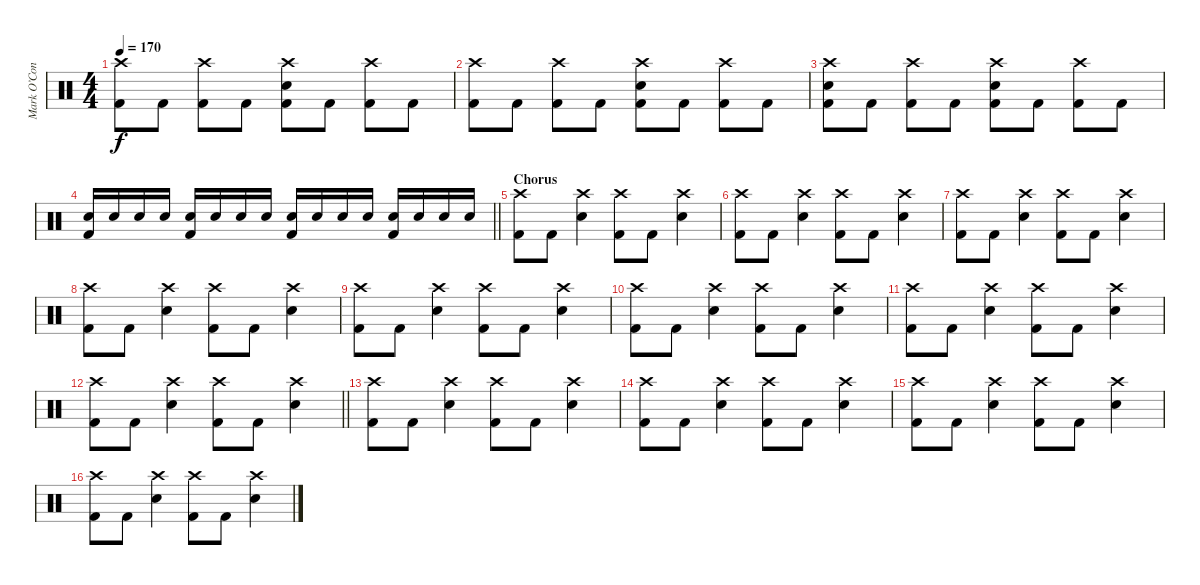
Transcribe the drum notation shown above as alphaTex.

\track ("Mark O’Connell - Drums" "Mark O’Con") {instrument percussion}
\staff {score}
\articulation defaults
\ts (4 4)
\tempo 170
\clef neutral
\ks c
("Crash high (hit)" "Kick (hit) 2").8{dy f} "Kick (hit) 2".8 ("Crash high (hit)" "Kick (hit) 2").8 "Kick (hit) 2".8 ("Crash high (hit)" "Snare (hit) 2" "Kick (hit) 2").8 "Kick (hit) 2".8 ("Crash high (hit)" "Kick (hit) 2").8 "Kick (hit) 2".8 |
("Crash high (hit)" "Kick (hit) 2").8 "Kick (hit) 2".8 ("Crash high (hit)" "Kick (hit) 2").8 "Kick (hit) 2".8 ("Crash high (hit)" "Snare (hit) 2" "Kick (hit) 2").8 "Kick (hit) 2".8 ("Crash high (hit)" "Kick (hit) 2").8 "Kick (hit) 2".8 |
("Crash high (hit)" "Snare (hit) 2" "Kick (hit) 2").8 "Kick (hit) 2".8 ("Crash high (hit)" "Kick (hit) 2").8 "Kick (hit) 2".8 ("Crash high (hit)" "Snare (hit) 2" "Kick (hit) 2").8 "Kick (hit) 2".8 ("Crash high (hit)" "Kick (hit) 2").8 "Kick (hit) 2".8 |
\barLineRight lightlight
("Snare (hit) 2" "Kick (hit) 2").16 "Snare (hit) 2".16 "Snare (hit) 2".16 "Snare (hit) 2".16 ("Snare (hit) 2" "Kick (hit) 2").16 "Snare (hit) 2".16 "Snare (hit) 2".16 "Snare (hit) 2".16 ("Snare (hit) 2" "Kick (hit) 2").16 "Snare (hit) 2".16 "Snare (hit) 2".16 "Snare (hit) 2".16 ("Snare (hit) 2" "Kick (hit) 2").16 "Snare (hit) 2".16 "Snare (hit) 2".16 "Snare (hit) 2".16 |
\section ("" "Chorus")
("Crash high (hit)" "Kick (hit) 2").8 "Kick (hit) 2".8 ("Crash high (hit)" "Snare (hit) 2").4 ("Crash high (hit)" "Kick (hit) 2").8 "Kick (hit) 2".8 ("Crash high (hit)" "Snare (hit) 2").4 |
("Crash high (hit)" "Kick (hit) 2").8 "Kick (hit) 2".8 ("Crash high (hit)" "Snare (hit) 2").4 ("Crash high (hit)" "Kick (hit) 2").8 "Kick (hit) 2".8 ("Crash high (hit)" "Snare (hit) 2").4 |
("Crash high (hit)" "Kick (hit) 2").8 "Kick (hit) 2".8 ("Crash high (hit)" "Snare (hit) 2").4 ("Crash high (hit)" "Kick (hit) 2").8 "Kick (hit) 2".8 ("Crash high (hit)" "Snare (hit) 2").4 |
("Crash high (hit)" "Kick (hit) 2").8 "Kick (hit) 2".8 ("Crash high (hit)" "Snare (hit) 2").4 ("Crash high (hit)" "Kick (hit) 2").8 "Kick (hit) 2".8 ("Crash high (hit)" "Snare (hit) 2").4 |
("Crash high (hit)" "Kick (hit) 2").8 "Kick (hit) 2".8 ("Crash high (hit)" "Snare (hit) 2").4 ("Crash high (hit)" "Kick (hit) 2").8 "Kick (hit) 2".8 ("Crash high (hit)" "Snare (hit) 2").4 |
("Crash high (hit)" "Kick (hit) 2").8 "Kick (hit) 2".8 ("Crash high (hit)" "Snare (hit) 2").4 ("Crash high (hit)" "Kick (hit) 2").8 "Kick (hit) 2".8 ("Crash high (hit)" "Snare (hit) 2").4 |
("Crash high (hit)" "Kick (hit) 2").8 "Kick (hit) 2".8 ("Crash high (hit)" "Snare (hit) 2").4 ("Crash high (hit)" "Kick (hit) 2").8 "Kick (hit) 2".8 ("Crash high (hit)" "Snare (hit) 2").4 |
\barLineRight lightlight
("Crash high (hit)" "Kick (hit) 2").8 "Kick (hit) 2".8 ("Crash high (hit)" "Snare (hit) 2").4 ("Crash high (hit)" "Kick (hit) 2").8 "Kick (hit) 2".8 ("Crash high (hit)" "Snare (hit) 2").4 |
("Crash high (hit)" "Kick (hit) 2").8 "Kick (hit) 2".8 ("Crash high (hit)" "Snare (hit) 2").4 ("Crash high (hit)" "Kick (hit) 2").8 "Kick (hit) 2".8 ("Crash high (hit)" "Snare (hit) 2").4 |
("Crash high (hit)" "Kick (hit) 2").8 "Kick (hit) 2".8 ("Crash high (hit)" "Snare (hit) 2").4 ("Crash high (hit)" "Kick (hit) 2").8 "Kick (hit) 2".8 ("Crash high (hit)" "Snare (hit) 2").4 |
("Crash high (hit)" "Kick (hit) 2").8 "Kick (hit) 2".8 ("Crash high (hit)" "Snare (hit) 2").4 ("Crash high (hit)" "Kick (hit) 2").8 "Kick (hit) 2".8 ("Crash high (hit)" "Snare (hit) 2").4 |
("Crash high (hit)" "Kick (hit) 2").8 "Kick (hit) 2".8 ("Crash high (hit)" "Snare (hit) 2").4 ("Crash high (hit)" "Kick (hit) 2").8 "Kick (hit) 2".8 ("Crash high (hit)" "Snare (hit) 2").4
